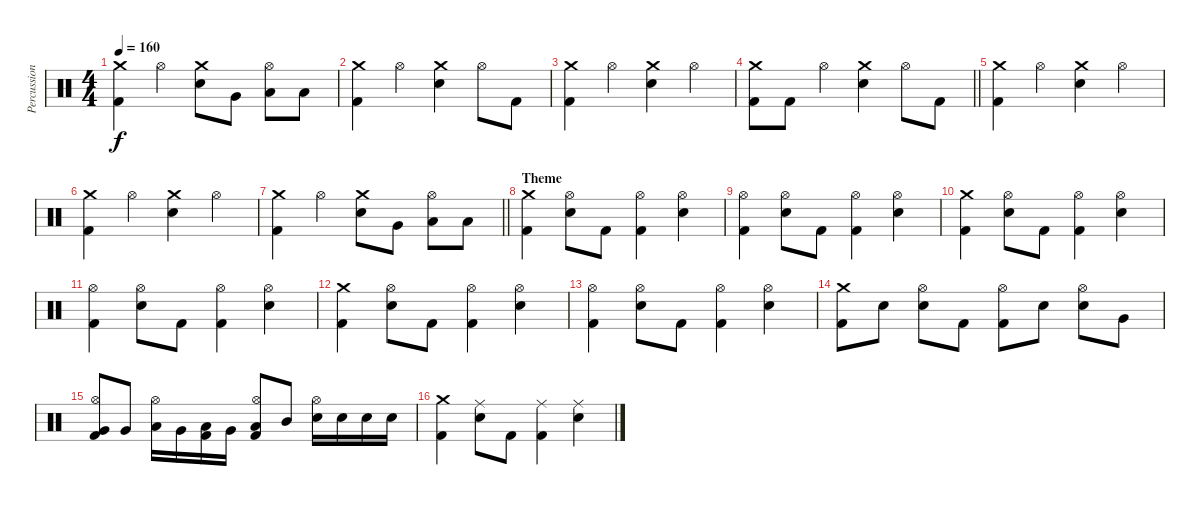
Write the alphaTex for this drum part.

\track ("Percussioni" "Percussion") {instrument percussion}
\staff {score}
\articulation defaults
\ts (4 4)
\tempo 160
\clef neutral
\ks c
("Crash medium (hit)" "Kick (hit) 2").4{dy f} "Hi-Hat (open)".4 ("Crash medium (hit)" "Electric Snare (hit)").8 "Very Low Tom (hit)".8 ("Hi-Hat (open)" "Low Floor Tom (hit)").8 "Low Floor Tom (hit)".8 |
("Crash medium (hit)" "Kick (hit) 2").4 "Hi-Hat (open)".4 ("Crash medium (hit)" "Electric Snare (hit)").4 "Hi-Hat (open)".8 "Kick (hit) 2".8 |
("Crash medium (hit)" "Kick (hit) 2").4 "Hi-Hat (open)".4 ("Crash medium (hit)" "Electric Snare (hit)").4 "Hi-Hat (open)".4 |
\barLineRight lightlight
("Crash medium (hit)" "Kick (hit) 2").8 "Kick (hit) 2".8 "Hi-Hat (open)".4 ("Crash medium (hit)" "Electric Snare (hit)").4 "Hi-Hat (open)".8 "Kick (hit) 2".8 |
("Crash medium (hit)" "Kick (hit) 2").4 "Hi-Hat (open)".4 ("Crash medium (hit)" "Electric Snare (hit)").4 "Hi-Hat (open)".4 |
("Crash medium (hit)" "Kick (hit) 2").4 "Hi-Hat (open)".4 ("Crash medium (hit)" "Electric Snare (hit)").4 "Hi-Hat (open)".4 |
\barLineRight lightlight
("Crash medium (hit)" "Kick (hit) 2").4 "Hi-Hat (open)".4 ("Crash medium (hit)" "Electric Snare (hit)").8 "Very Low Tom (hit)".8 ("Hi-Hat (open)" "Low Floor Tom (hit)").8 "Low Floor Tom (hit)".8 |
\section ("" "Theme")
("Crash medium (hit)" "Kick (hit) 2").4 ("Hi-Hat (open)" "Electric Snare (hit)").8 "Kick (hit) 2".8 ("Hi-Hat (open)" "Kick (hit) 2").4 ("Hi-Hat (open)" "Electric Snare (hit)").4 |
("Hi-Hat (open)" "Kick (hit) 2").4 ("Hi-Hat (open)" "Electric Snare (hit)").8 "Kick (hit) 2".8 ("Hi-Hat (open)" "Kick (hit) 2").4 ("Hi-Hat (open)" "Electric Snare (hit)").4 |
("Crash medium (hit)" "Kick (hit) 2").4 ("Hi-Hat (open)" "Electric Snare (hit)").8 "Kick (hit) 2".8 ("Hi-Hat (open)" "Kick (hit) 2").4 ("Hi-Hat (open)" "Electric Snare (hit)").4 |
("Hi-Hat (open)" "Kick (hit) 2").4 ("Hi-Hat (open)" "Electric Snare (hit)").8 "Kick (hit) 2".8 ("Hi-Hat (open)" "Kick (hit) 2").4 ("Hi-Hat (open)" "Electric Snare (hit)").4 |
("Crash medium (hit)" "Kick (hit) 2").4 ("Hi-Hat (open)" "Electric Snare (hit)").8 "Kick (hit) 2".8 ("Hi-Hat (open)" "Kick (hit) 2").4 ("Hi-Hat (open)" "Electric Snare (hit)").4 |
("Hi-Hat (open)" "Kick (hit) 2").4 ("Hi-Hat (open)" "Electric Snare (hit)").8 "Kick (hit) 2".8 ("Hi-Hat (open)" "Kick (hit) 2").4 ("Hi-Hat (open)" "Electric Snare (hit)").4 |
("Crash medium (hit)" "Kick (hit) 2").8 "Electric Snare (hit)".8 ("Hi-Hat (open)" "Electric Snare (hit)").8 "Kick (hit) 2".8 ("Hi-Hat (open)" "Kick (hit) 2").8 "Electric Snare (hit)".8 ("Hi-Hat (open)" "Electric Snare (hit)").8 "Very Low Tom (hit)".8 |
("Hi-Hat (open)" "Very Low Tom (hit)" "Kick (hit) 2").8 "Very Low Tom (hit)".8 ("Hi-Hat (open)" "Low Tom (hit)").16 "Very Low Tom (hit)".16 ("Low Tom (hit)" "Kick (hit) 2").16 "Very Low Tom (hit)".16 ("Hi-Hat (open)" "Low Tom (hit)" "Kick (hit) 2").8 "Mid Tom (hit)".8 ("Hi-Hat (open)" "Electric Snare (hit)").16 "Electric Snare (hit)".16 "Electric Snare (hit)".16 "Electric Snare (hit)".16 |
("Crash medium (hit)" "Kick (hit) 2").4 ("Ride (middle)" "Electric Snare (hit)").8 "Kick (hit) 2".8 ("Ride (middle)" "Kick (hit) 2").4 ("Ride (middle)" "Electric Snare (hit)").4
